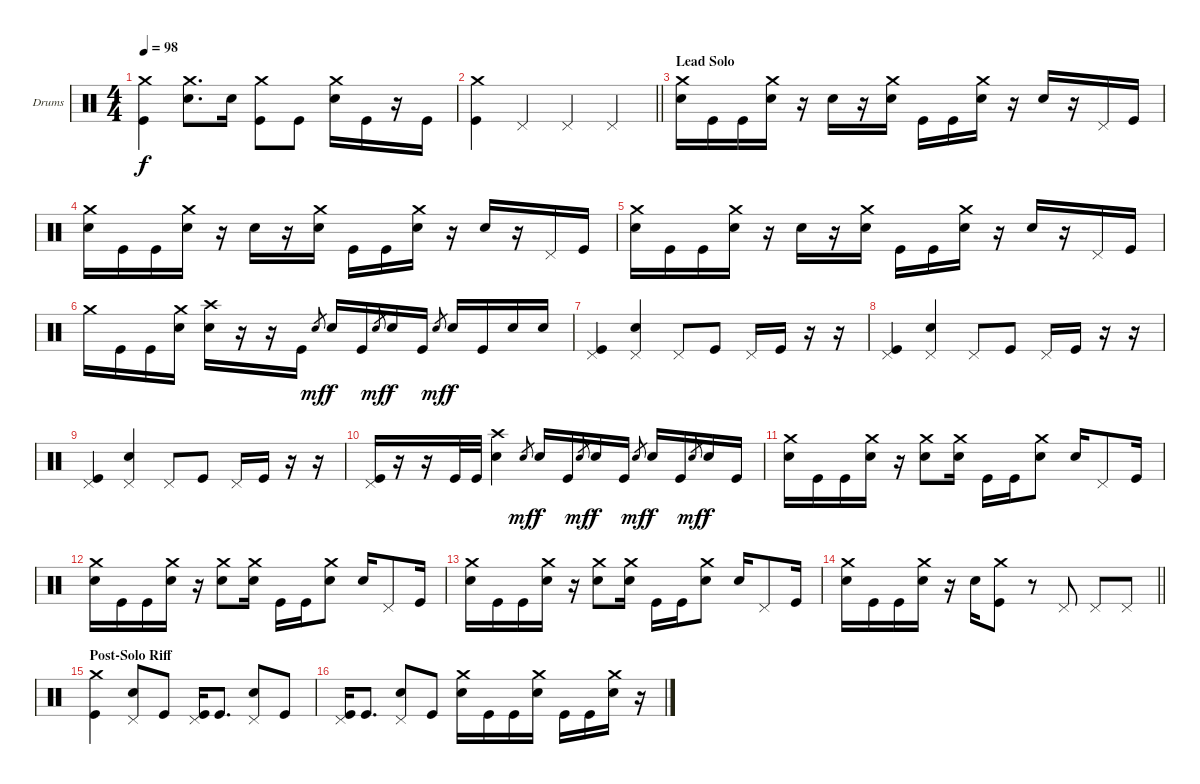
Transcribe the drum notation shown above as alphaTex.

\bracketExtendMode groupsimilarinstruments
\firstSystemTrackNameOrientation horizontal
\otherSystemsTrackNameOrientation horizontal
\track ("Drumkit" "Drums") {instrument percussion}
\staff {score}
\articulation defaults
\ts (4 4)
\tempo 98
\clef neutral
\ks c
("Crash medium (hit)" "Kick (hit)").4{dy f} ("Crash medium (hit)" "Snare (hit) 2").8{d} "Snare (hit) 2".16 ("Crash medium (hit)" "Kick (hit)").8 "Kick (hit)".8 ("Crash medium (hit)" "Snare (hit) 2").16 "Kick (hit)".16 r.16 "Kick (hit)".16 |
\barLineRight lightlight
("Crash medium (hit)" "Kick (hit)").4 "Pedal Hi-Hat (hit)".4 "Pedal Hi-Hat (hit)".4 "Pedal Hi-Hat (hit)".4 |
\section ("" "Lead Solo")
("Crash medium (hit)" "Snare (hit) 2").16 "Kick (hit)".16 "Kick (hit)".16 ("Crash medium (hit)" "Snare (hit) 2").16 r.16 "Snare (hit) 2".16 r.16 ("Crash medium (hit)" "Snare (hit) 2").16 "Kick (hit)".16 "Kick (hit)".16 ("Crash medium (hit)" "Snare (hit) 2").16 r.16 "Snare (hit) 2".16 r.16 "Pedal Hi-Hat (hit)".16 "Kick (hit)".16 |
("Crash medium (hit)" "Snare (hit) 2").16 "Kick (hit)".16 "Kick (hit)".16 ("Crash medium (hit)" "Snare (hit) 2").16 r.16 "Snare (hit) 2".16 r.16 ("Crash medium (hit)" "Snare (hit) 2").16 "Kick (hit)".16 "Kick (hit)".16 ("Crash medium (hit)" "Snare (hit) 2").16 r.16 "Snare (hit) 2".16 r.16 "Pedal Hi-Hat (hit)".16 "Kick (hit)".16 |
("Crash medium (hit)" "Snare (hit) 2").16 "Kick (hit)".16 "Kick (hit)".16 ("Crash medium (hit)" "Snare (hit) 2").16 r.16 "Snare (hit) 2".16 r.16 ("Crash medium (hit)" "Snare (hit) 2").16 "Kick (hit)".16 "Kick (hit)".16 ("Crash medium (hit)" "Snare (hit) 2").16 r.16 "Snare (hit) 2".16 r.16 "Pedal Hi-Hat (hit)".16 "Kick (hit)".16 |
"Crash medium (hit)".16 "Kick (hit)".16 "Kick (hit)".16 ("Crash medium (hit)" "Snare (hit) 2").16 ("Crash high (hit)" "Snare (hit) 2").16 r.16 r.16 "Kick (hit)".16 "Snare (hit) 2".8{gr dy mf} "Snare (hit) 2".16{dy f} "Kick (hit)".16 "Snare (hit) 2".8{gr dy mf} "Snare (hit) 2".16{dy f} "Kick (hit)".16 "Snare (hit) 2".8{gr dy mf} "Snare (hit) 2".16{dy f} "Kick (hit)".16 "Snare (hit) 2".16 "Snare (hit) 2".16 |
("Pedal Hi-Hat (hit)" "Kick (hit)").4 ("Pedal Hi-Hat (hit)" "Snare (hit) 2").4 "Pedal Hi-Hat (hit)".8 "Kick (hit)".8 "Pedal Hi-Hat (hit)".16 "Kick (hit)".16 r.16 r.16 |
("Pedal Hi-Hat (hit)" "Kick (hit)").4 ("Pedal Hi-Hat (hit)" "Snare (hit) 2").4 "Pedal Hi-Hat (hit)".8 "Kick (hit)".8 "Pedal Hi-Hat (hit)".16 "Kick (hit)".16 r.16 r.16 |
("Pedal Hi-Hat (hit)" "Kick (hit)").4 ("Pedal Hi-Hat (hit)" "Snare (hit) 2").4 "Pedal Hi-Hat (hit)".8 "Kick (hit)".8 "Pedal Hi-Hat (hit)".16 "Kick (hit)".16 r.16 r.16 |
("Pedal Hi-Hat (hit)" "Kick (hit)").16 r.16 r.16 "Kick (hit)".32 "Kick (hit)".32 ("Crash high (hit)" "Snare (hit) 2").4 "Snare (hit) 2".8{gr dy mf} "Snare (hit) 2".16{dy f} "Kick (hit)".16 "Snare (hit) 2".8{gr dy mf} "Snare (hit) 2".16{dy f} "Kick (hit)".16 "Snare (hit) 2".8{gr dy mf} "Snare (hit) 2".16{dy f} "Kick (hit)".16 "Snare (hit) 2".8{gr dy mf} "Snare (hit) 2".16{dy f} "Kick (hit)".16 |
("Crash medium (hit)" "Snare (hit) 2").16 "Kick (hit)".16 "Kick (hit)".16 ("Crash medium (hit)" "Snare (hit) 2").16 r.16 ("Crash medium (hit)" "Snare (hit) 2").8 ("Crash medium (hit)" "Snare (hit) 2").16 "Kick (hit)".16 "Kick (hit)".16 ("Crash medium (hit)" "Snare (hit) 2").8 "Snare (hit) 2".16 "Pedal Hi-Hat (hit)".8 "Kick (hit)".16 |
("Crash medium (hit)" "Snare (hit) 2").16 "Kick (hit)".16 "Kick (hit)".16 ("Crash medium (hit)" "Snare (hit) 2").16 r.16 ("Crash medium (hit)" "Snare (hit) 2").8 ("Crash medium (hit)" "Snare (hit) 2").16 "Kick (hit)".16 "Kick (hit)".16 ("Crash medium (hit)" "Snare (hit) 2").8 "Snare (hit) 2".16 "Pedal Hi-Hat (hit)".8 "Kick (hit)".16 |
("Crash medium (hit)" "Snare (hit) 2").16 "Kick (hit)".16 "Kick (hit)".16 ("Crash medium (hit)" "Snare (hit) 2").16 r.16 ("Crash medium (hit)" "Snare (hit) 2").8 ("Crash medium (hit)" "Snare (hit) 2").16 "Kick (hit)".16 "Kick (hit)".16 ("Crash medium (hit)" "Snare (hit) 2").8 "Snare (hit) 2".16 "Pedal Hi-Hat (hit)".8 "Kick (hit)".16 |
\barLineRight lightlight
("Crash medium (hit)" "Snare (hit) 2").16 "Kick (hit)".16 "Kick (hit)".16 ("Crash medium (hit)" "Snare (hit) 2").16 r.16 "Snare (hit) 2".16 ("Crash medium (hit)" "Kick (hit)").8 r.8 "Pedal Hi-Hat (hit)".8 "Pedal Hi-Hat (hit)".8 "Pedal Hi-Hat (hit)".8 |
\section ("" "Post-Solo Riff")
("Crash medium (hit)" "Kick (hit)").4 ("Pedal Hi-Hat (hit)" "Snare (hit) 2").8 "Kick (hit)".8 ("Pedal Hi-Hat (hit)" "Kick (hit)").16 "Kick (hit)".8{d} ("Pedal Hi-Hat (hit)" "Snare (hit) 2").8 "Kick (hit)".8 |
("Pedal Hi-Hat (hit)" "Kick (hit)").16 "Kick (hit)".8{d} ("Pedal Hi-Hat (hit)" "Snare (hit) 2").8 "Kick (hit)".8 ("Crash medium (hit)" "Snare (hit) 2").16 "Kick (hit)".16 "Kick (hit)".16 ("Crash medium (hit)" "Snare (hit) 2").16 "Kick (hit)".16 "Kick (hit)".16 ("Crash medium (hit)" "Snare (hit) 2").16 r.16
